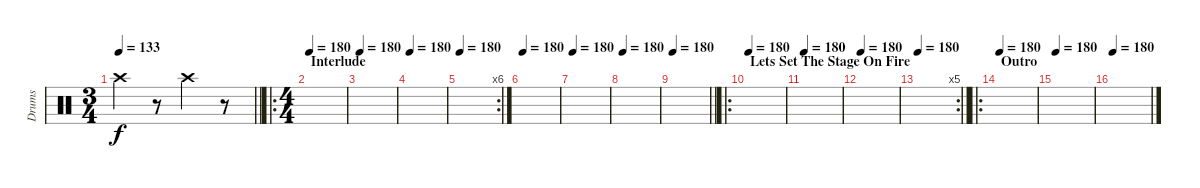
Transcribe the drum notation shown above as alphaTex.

\track ("Drums" "Drums") {instrument percussion}
\staff {score}
\articulation defaults
\ts (3 4)
\tempo 133
\clef neutral
\barLineRight lightlight
\ks c "Crash high (hit)".4{dy f}
r.8 "Crash high (hit)".4 r.8 |
\ro
\ts (4 4)
\section ("" "Interlude")
\tempo 180
|
\tempo 180
|
\tempo 180
|
\rc 6
\tempo 180
|
\tempo 180
|
\tempo 180
|
\tempo 180
|
\tempo 180
\barLineRight lightlight
|
\ro
\section ("" "Lets Set The Stage On Fire")
\tempo 180
|
\tempo 180
|
\tempo 180
|
\rc 5
\tempo 180
\barLineRight lightlight
|
\ro
\section ("" "Outro")
\tempo 180
|
\tempo 180
|
\tempo 180
